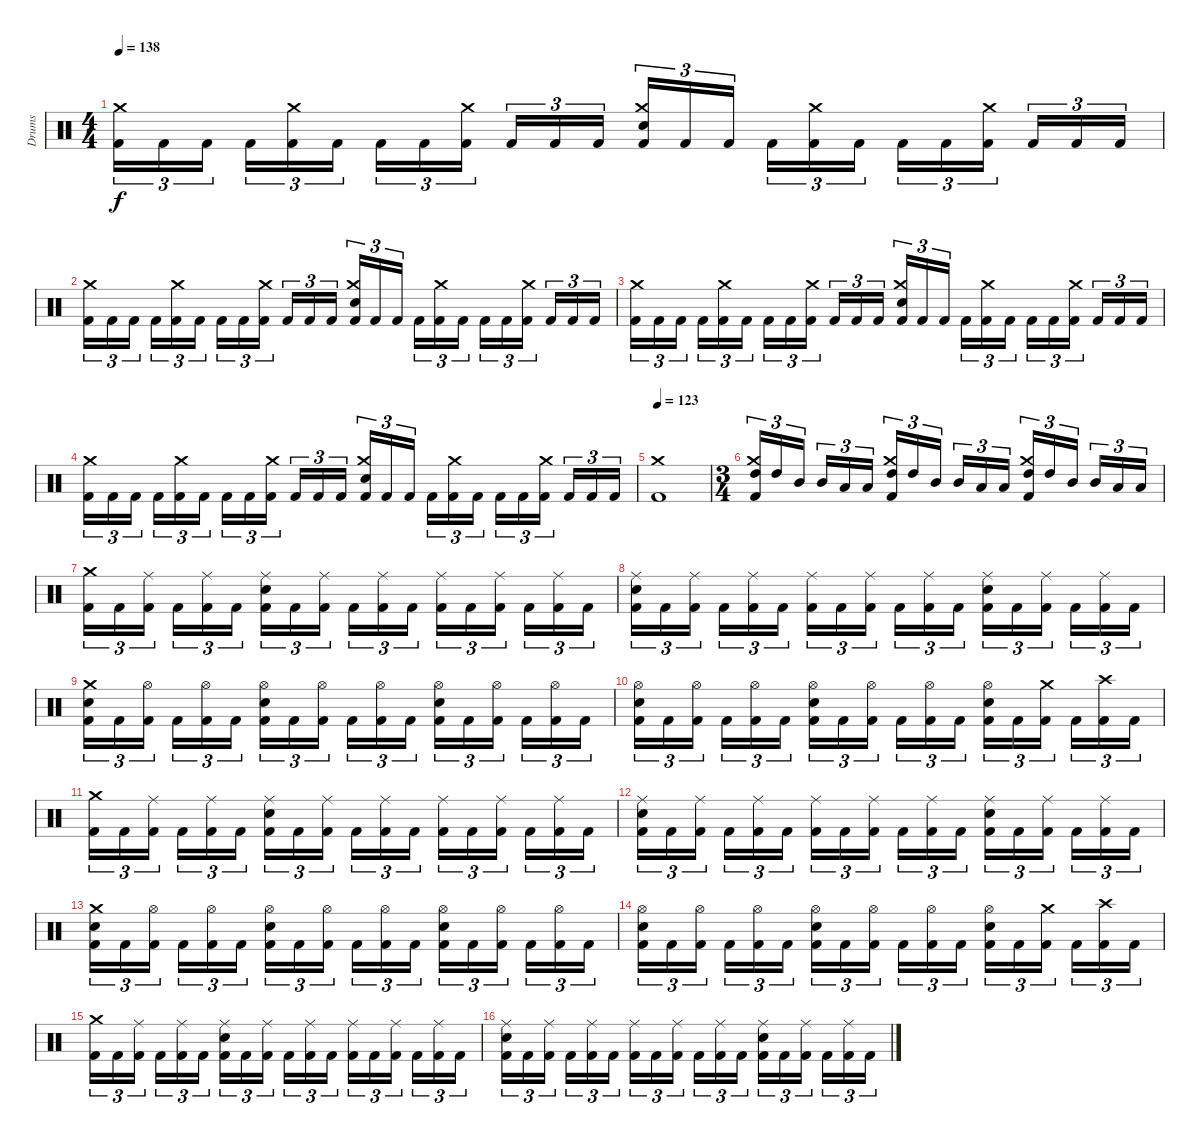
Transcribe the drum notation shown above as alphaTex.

\track ("Drums" "Drums") {instrument percussion}
\staff {score}
\articulation defaults
\ts (4 4)
\tempo 138
\clef neutral
\ks c
("Kick (hit) 2" "Crash medium (hit)").16{tu (3 2) dy f} "Kick (hit) 2".16{tu (3 2)} "Kick (hit) 2".16{tu (3 2)} "Kick (hit) 2".16{tu (3 2)} ("Kick (hit) 2" "Crash medium (hit)").16{tu (3 2)} "Kick (hit) 2".16{tu (3 2)} "Kick (hit) 2".16{tu (3 2)} "Kick (hit) 2".16{tu (3 2)} ("Kick (hit) 2" "Crash medium (hit)").16{tu (3 2)} "Kick (hit) 2".16{tu (3 2)} "Kick (hit) 2".16{tu (3 2)} "Kick (hit) 2".16{tu (3 2)} ("Kick (hit) 2" "Electric Snare (hit)" "Crash medium (hit)").16{tu (3 2)} "Kick (hit) 2".16{tu (3 2)} "Kick (hit) 2".16{tu (3 2)} "Kick (hit) 2".16{tu (3 2)} ("Kick (hit) 2" "Crash medium (hit)").16{tu (3 2)} "Kick (hit) 2".16{tu (3 2)} "Kick (hit) 2".16{tu (3 2)} "Kick (hit) 2".16{tu (3 2)} ("Kick (hit) 2" "Crash medium (hit)").16{tu (3 2)} "Kick (hit) 2".16{tu (3 2)} "Kick (hit) 2".16{tu (3 2)} "Kick (hit) 2".16{tu (3 2)} |
("Kick (hit) 2" "Crash medium (hit)").16{tu (3 2)} "Kick (hit) 2".16{tu (3 2)} "Kick (hit) 2".16{tu (3 2)} "Kick (hit) 2".16{tu (3 2)} ("Kick (hit) 2" "Crash medium (hit)").16{tu (3 2)} "Kick (hit) 2".16{tu (3 2)} "Kick (hit) 2".16{tu (3 2)} "Kick (hit) 2".16{tu (3 2)} ("Kick (hit) 2" "Crash medium (hit)").16{tu (3 2)} "Kick (hit) 2".16{tu (3 2)} "Kick (hit) 2".16{tu (3 2)} "Kick (hit) 2".16{tu (3 2)} ("Kick (hit) 2" "Electric Snare (hit)" "Crash medium (hit)").16{tu (3 2)} "Kick (hit) 2".16{tu (3 2)} "Kick (hit) 2".16{tu (3 2)} "Kick (hit) 2".16{tu (3 2)} ("Kick (hit) 2" "Crash medium (hit)").16{tu (3 2)} "Kick (hit) 2".16{tu (3 2)} "Kick (hit) 2".16{tu (3 2)} "Kick (hit) 2".16{tu (3 2)} ("Kick (hit) 2" "Crash medium (hit)").16{tu (3 2)} "Kick (hit) 2".16{tu (3 2)} "Kick (hit) 2".16{tu (3 2)} "Kick (hit) 2".16{tu (3 2)} |
("Kick (hit) 2" "Crash medium (hit)").16{tu (3 2)} "Kick (hit) 2".16{tu (3 2)} "Kick (hit) 2".16{tu (3 2)} "Kick (hit) 2".16{tu (3 2)} ("Kick (hit) 2" "Crash medium (hit)").16{tu (3 2)} "Kick (hit) 2".16{tu (3 2)} "Kick (hit) 2".16{tu (3 2)} "Kick (hit) 2".16{tu (3 2)} ("Kick (hit) 2" "Crash medium (hit)").16{tu (3 2)} "Kick (hit) 2".16{tu (3 2)} "Kick (hit) 2".16{tu (3 2)} "Kick (hit) 2".16{tu (3 2)} ("Kick (hit) 2" "Electric Snare (hit)" "Crash medium (hit)").16{tu (3 2)} "Kick (hit) 2".16{tu (3 2)} "Kick (hit) 2".16{tu (3 2)} "Kick (hit) 2".16{tu (3 2)} ("Kick (hit) 2" "Crash medium (hit)").16{tu (3 2)} "Kick (hit) 2".16{tu (3 2)} "Kick (hit) 2".16{tu (3 2)} "Kick (hit) 2".16{tu (3 2)} ("Kick (hit) 2" "Crash medium (hit)").16{tu (3 2)} "Kick (hit) 2".16{tu (3 2)} "Kick (hit) 2".16{tu (3 2)} "Kick (hit) 2".16{tu (3 2)} |
("Kick (hit) 2" "Crash medium (hit)").16{tu (3 2)} "Kick (hit) 2".16{tu (3 2)} "Kick (hit) 2".16{tu (3 2)} "Kick (hit) 2".16{tu (3 2)} ("Kick (hit) 2" "Crash medium (hit)").16{tu (3 2)} "Kick (hit) 2".16{tu (3 2)} "Kick (hit) 2".16{tu (3 2)} "Kick (hit) 2".16{tu (3 2)} ("Kick (hit) 2" "Crash medium (hit)").16{tu (3 2)} "Kick (hit) 2".16{tu (3 2)} "Kick (hit) 2".16{tu (3 2)} "Kick (hit) 2".16{tu (3 2)} ("Kick (hit) 2" "Electric Snare (hit)" "Crash medium (hit)").16{tu (3 2)} "Kick (hit) 2".16{tu (3 2)} "Kick (hit) 2".16{tu (3 2)} "Kick (hit) 2".16{tu (3 2)} ("Kick (hit) 2" "Crash medium (hit)").16{tu (3 2)} "Kick (hit) 2".16{tu (3 2)} "Kick (hit) 2".16{tu (3 2)} "Kick (hit) 2".16{tu (3 2)} ("Kick (hit) 2" "Crash medium (hit)").16{tu (3 2)} "Kick (hit) 2".16{tu (3 2)} "Kick (hit) 2".16{tu (3 2)} "Kick (hit) 2".16{tu (3 2)} |
\tempo 123
("Kick (hit) 2" "Crash medium (hit)").1 |
\ts (3 4)
("Kick (hit) 2" "High Tom (hit)" "Crash medium (hit)").16{tu (3 2)} "High Tom (hit)".16{tu (3 2)} "Mid Tom (hit)".16{tu (3 2)} "Mid Tom (hit)".16{tu (3 2)} "Low Tom (hit)".16{tu (3 2)} "Low Tom (hit)".16{tu (3 2)} ("Kick (hit) 2" "High Tom (hit)" "Crash medium (hit)").16{tu (3 2)} "High Tom (hit)".16{tu (3 2)} "Mid Tom (hit)".16{tu (3 2)} "Mid Tom (hit)".16{tu (3 2)} "Low Tom (hit)".16{tu (3 2)} "Low Tom (hit)".16{tu (3 2)} ("Kick (hit) 2" "High Tom (hit)" "Crash medium (hit)").16{tu (3 2)} "High Tom (hit)".16{tu (3 2)} "Mid Tom (hit)".16{tu (3 2)} "Mid Tom (hit)".16{tu (3 2)} "Low Tom (hit)".16{tu (3 2)} "Low Tom (hit)".16{tu (3 2)} |
("Kick (hit) 2" "Crash medium (hit)").16{tu (3 2)} "Kick (hit) 2".16{tu (3 2)} ("Kick (hit) 2" "Ride (middle)").16{tu (3 2)} "Kick (hit) 2".16{tu (3 2)} ("Kick (hit) 2" "Ride (middle)").16{tu (3 2)} "Kick (hit) 2".16{tu (3 2)} ("Kick (hit) 2" "Electric Snare (hit)" "Ride (middle)").16{tu (3 2)} "Kick (hit) 2".16{tu (3 2)} ("Kick (hit) 2" "Ride (middle)").16{tu (3 2)} "Kick (hit) 2".16{tu (3 2)} ("Kick (hit) 2" "Ride (middle)").16{tu (3 2)} "Kick (hit) 2".16{tu (3 2)} ("Kick (hit) 2" "Ride (middle)").16{tu (3 2)} "Kick (hit) 2".16{tu (3 2)} ("Kick (hit) 2" "Ride (middle)").16{tu (3 2)} "Kick (hit) 2".16{tu (3 2)} ("Kick (hit) 2" "Ride (middle)").16{tu (3 2)} "Kick (hit) 2".16{tu (3 2)} |
("Kick (hit) 2" "Electric Snare (hit)" "Ride (middle)").16{tu (3 2)} "Kick (hit) 2".16{tu (3 2)} ("Kick (hit) 2" "Ride (middle)").16{tu (3 2)} "Kick (hit) 2".16{tu (3 2)} ("Kick (hit) 2" "Ride (middle)").16{tu (3 2)} "Kick (hit) 2".16{tu (3 2)} ("Kick (hit) 2" "Ride (middle)").16{tu (3 2)} "Kick (hit) 2".16{tu (3 2)} ("Kick (hit) 2" "Ride (middle)").16{tu (3 2)} "Kick (hit) 2".16{tu (3 2)} ("Kick (hit) 2" "Ride (middle)").16{tu (3 2)} "Kick (hit) 2".16{tu (3 2)} ("Kick (hit) 2" "Electric Snare (hit)" "Ride (middle)").16{tu (3 2)} "Kick (hit) 2".16{tu (3 2)} ("Kick (hit) 2" "Ride (middle)").16{tu (3 2)} "Kick (hit) 2".16{tu (3 2)} ("Kick (hit) 2" "Ride (middle)").16{tu (3 2)} "Kick (hit) 2".16{tu (3 2)} |
("Kick (hit) 2" "Electric Snare (hit)" "Crash medium (hit)").16{tu (3 2)} "Kick (hit) 2".16{tu (3 2)} ("Kick (hit) 2" "Hi-Hat (open)").16{tu (3 2)} "Kick (hit) 2".16{tu (3 2)} ("Kick (hit) 2" "Hi-Hat (open)").16{tu (3 2)} "Kick (hit) 2".16{tu (3 2)} ("Kick (hit) 2" "Electric Snare (hit)" "Hi-Hat (open)").16{tu (3 2)} "Kick (hit) 2".16{tu (3 2)} ("Kick (hit) 2" "Hi-Hat (open)").16{tu (3 2)} "Kick (hit) 2".16{tu (3 2)} ("Kick (hit) 2" "Hi-Hat (open)").16{tu (3 2)} "Kick (hit) 2".16{tu (3 2)} ("Kick (hit) 2" "Electric Snare (hit)" "Hi-Hat (open)").16{tu (3 2)} "Kick (hit) 2".16{tu (3 2)} ("Kick (hit) 2" "Hi-Hat (open)").16{tu (3 2)} "Kick (hit) 2".16{tu (3 2)} ("Kick (hit) 2" "Hi-Hat (open)").16{tu (3 2)} "Kick (hit) 2".16{tu (3 2)} |
("Kick (hit) 2" "Electric Snare (hit)" "Hi-Hat (open)").16{tu (3 2)} "Kick (hit) 2".16{tu (3 2)} ("Kick (hit) 2" "Hi-Hat (open)").16{tu (3 2)} "Kick (hit) 2".16{tu (3 2)} ("Kick (hit) 2" "Hi-Hat (open)").16{tu (3 2)} "Kick (hit) 2".16{tu (3 2)} ("Kick (hit) 2" "Electric Snare (hit)" "Hi-Hat (open)").16{tu (3 2)} "Kick (hit) 2".16{tu (3 2)} ("Kick (hit) 2" "Hi-Hat (open)").16{tu (3 2)} "Kick (hit) 2".16{tu (3 2)} ("Kick (hit) 2" "Hi-Hat (open)").16{tu (3 2)} "Kick (hit) 2".16{tu (3 2)} ("Kick (hit) 2" "Electric Snare (hit)" "Hi-Hat (open)").16{tu (3 2)} "Kick (hit) 2".16{tu (3 2)} ("Kick (hit) 2" "Crash medium (hit)").16{tu (3 2)} "Kick (hit) 2".16{tu (3 2)} ("Kick (hit) 2" "Crash high (hit)").16{tu (3 2)} "Kick (hit) 2".16{tu (3 2)} |
("Kick (hit) 2" "Crash medium (hit)").16{tu (3 2)} "Kick (hit) 2".16{tu (3 2)} ("Kick (hit) 2" "Ride (middle)").16{tu (3 2)} "Kick (hit) 2".16{tu (3 2)} ("Kick (hit) 2" "Ride (middle)").16{tu (3 2)} "Kick (hit) 2".16{tu (3 2)} ("Kick (hit) 2" "Electric Snare (hit)" "Ride (middle)").16{tu (3 2)} "Kick (hit) 2".16{tu (3 2)} ("Kick (hit) 2" "Ride (middle)").16{tu (3 2)} "Kick (hit) 2".16{tu (3 2)} ("Kick (hit) 2" "Ride (middle)").16{tu (3 2)} "Kick (hit) 2".16{tu (3 2)} ("Kick (hit) 2" "Ride (middle)").16{tu (3 2)} "Kick (hit) 2".16{tu (3 2)} ("Kick (hit) 2" "Ride (middle)").16{tu (3 2)} "Kick (hit) 2".16{tu (3 2)} ("Kick (hit) 2" "Ride (middle)").16{tu (3 2)} "Kick (hit) 2".16{tu (3 2)} |
("Kick (hit) 2" "Electric Snare (hit)" "Ride (middle)").16{tu (3 2)} "Kick (hit) 2".16{tu (3 2)} ("Kick (hit) 2" "Ride (middle)").16{tu (3 2)} "Kick (hit) 2".16{tu (3 2)} ("Kick (hit) 2" "Ride (middle)").16{tu (3 2)} "Kick (hit) 2".16{tu (3 2)} ("Kick (hit) 2" "Ride (middle)").16{tu (3 2)} "Kick (hit) 2".16{tu (3 2)} ("Kick (hit) 2" "Ride (middle)").16{tu (3 2)} "Kick (hit) 2".16{tu (3 2)} ("Kick (hit) 2" "Ride (middle)").16{tu (3 2)} "Kick (hit) 2".16{tu (3 2)} ("Kick (hit) 2" "Electric Snare (hit)" "Ride (middle)").16{tu (3 2)} "Kick (hit) 2".16{tu (3 2)} ("Kick (hit) 2" "Ride (middle)").16{tu (3 2)} "Kick (hit) 2".16{tu (3 2)} ("Kick (hit) 2" "Ride (middle)").16{tu (3 2)} "Kick (hit) 2".16{tu (3 2)} |
("Kick (hit) 2" "Electric Snare (hit)" "Crash medium (hit)").16{tu (3 2)} "Kick (hit) 2".16{tu (3 2)} ("Kick (hit) 2" "Hi-Hat (open)").16{tu (3 2)} "Kick (hit) 2".16{tu (3 2)} ("Kick (hit) 2" "Hi-Hat (open)").16{tu (3 2)} "Kick (hit) 2".16{tu (3 2)} ("Kick (hit) 2" "Electric Snare (hit)" "Hi-Hat (open)").16{tu (3 2)} "Kick (hit) 2".16{tu (3 2)} ("Kick (hit) 2" "Hi-Hat (open)").16{tu (3 2)} "Kick (hit) 2".16{tu (3 2)} ("Kick (hit) 2" "Hi-Hat (open)").16{tu (3 2)} "Kick (hit) 2".16{tu (3 2)} ("Kick (hit) 2" "Electric Snare (hit)" "Hi-Hat (open)").16{tu (3 2)} "Kick (hit) 2".16{tu (3 2)} ("Kick (hit) 2" "Hi-Hat (open)").16{tu (3 2)} "Kick (hit) 2".16{tu (3 2)} ("Kick (hit) 2" "Hi-Hat (open)").16{tu (3 2)} "Kick (hit) 2".16{tu (3 2)} |
("Kick (hit) 2" "Electric Snare (hit)" "Hi-Hat (open)").16{tu (3 2)} "Kick (hit) 2".16{tu (3 2)} ("Kick (hit) 2" "Hi-Hat (open)").16{tu (3 2)} "Kick (hit) 2".16{tu (3 2)} ("Kick (hit) 2" "Hi-Hat (open)").16{tu (3 2)} "Kick (hit) 2".16{tu (3 2)} ("Kick (hit) 2" "Electric Snare (hit)" "Hi-Hat (open)").16{tu (3 2)} "Kick (hit) 2".16{tu (3 2)} ("Kick (hit) 2" "Hi-Hat (open)").16{tu (3 2)} "Kick (hit) 2".16{tu (3 2)} ("Kick (hit) 2" "Hi-Hat (open)").16{tu (3 2)} "Kick (hit) 2".16{tu (3 2)} ("Kick (hit) 2" "Electric Snare (hit)" "Hi-Hat (open)").16{tu (3 2)} "Kick (hit) 2".16{tu (3 2)} ("Kick (hit) 2" "Crash medium (hit)").16{tu (3 2)} "Kick (hit) 2".16{tu (3 2)} ("Kick (hit) 2" "Crash high (hit)").16{tu (3 2)} "Kick (hit) 2".16{tu (3 2)} |
("Kick (hit) 2" "Crash medium (hit)").16{tu (3 2)} "Kick (hit) 2".16{tu (3 2)} ("Kick (hit) 2" "Ride (middle)").16{tu (3 2)} "Kick (hit) 2".16{tu (3 2)} ("Kick (hit) 2" "Ride (middle)").16{tu (3 2)} "Kick (hit) 2".16{tu (3 2)} ("Kick (hit) 2" "Electric Snare (hit)" "Ride (middle)").16{tu (3 2)} "Kick (hit) 2".16{tu (3 2)} ("Kick (hit) 2" "Ride (middle)").16{tu (3 2)} "Kick (hit) 2".16{tu (3 2)} ("Kick (hit) 2" "Ride (middle)").16{tu (3 2)} "Kick (hit) 2".16{tu (3 2)} ("Kick (hit) 2" "Ride (middle)").16{tu (3 2)} "Kick (hit) 2".16{tu (3 2)} ("Kick (hit) 2" "Ride (middle)").16{tu (3 2)} "Kick (hit) 2".16{tu (3 2)} ("Kick (hit) 2" "Ride (middle)").16{tu (3 2)} "Kick (hit) 2".16{tu (3 2)} |
("Kick (hit) 2" "Electric Snare (hit)" "Ride (middle)").16{tu (3 2)} "Kick (hit) 2".16{tu (3 2)} ("Kick (hit) 2" "Ride (middle)").16{tu (3 2)} "Kick (hit) 2".16{tu (3 2)} ("Kick (hit) 2" "Ride (middle)").16{tu (3 2)} "Kick (hit) 2".16{tu (3 2)} ("Kick (hit) 2" "Ride (middle)").16{tu (3 2)} "Kick (hit) 2".16{tu (3 2)} ("Kick (hit) 2" "Ride (middle)").16{tu (3 2)} "Kick (hit) 2".16{tu (3 2)} ("Kick (hit) 2" "Ride (middle)").16{tu (3 2)} "Kick (hit) 2".16{tu (3 2)} ("Kick (hit) 2" "Electric Snare (hit)" "Ride (middle)").16{tu (3 2)} "Kick (hit) 2".16{tu (3 2)} ("Kick (hit) 2" "Ride (middle)").16{tu (3 2)} "Kick (hit) 2".16{tu (3 2)} ("Kick (hit) 2" "Ride (middle)").16{tu (3 2)} "Kick (hit) 2".16{tu (3 2)}
